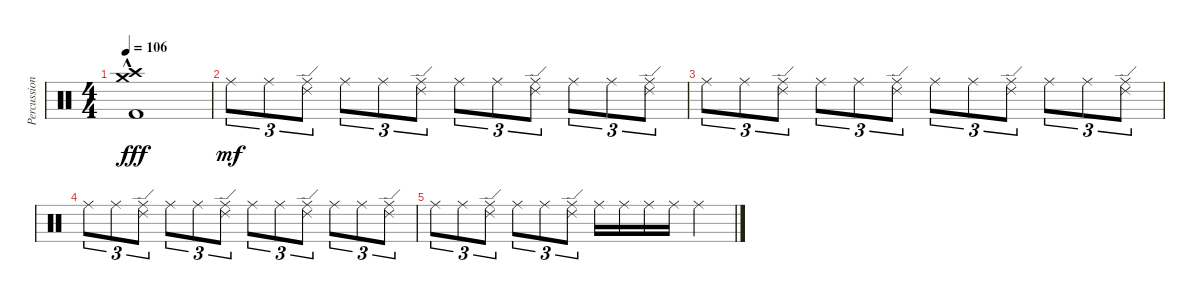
\track ("Percussion" "Percussion") {instrument percussion}
\staff {score}
\articulation defaults
\ts (4 4)
\tempo 106
\clef neutral
\ks c
("Crash medium (hit)" "Crash high (hit)" "Kick (hit) 2"{hac}).1{dy fff} |
"Ride (middle)".8{tu (3 2) dy mf} "Ride (middle)".8{tu (3 2)} ("Ride (edge) 2" "Ride (middle)").8{tu (3 2)} "Ride (middle)".8{tu (3 2)} "Ride (middle)".8{tu (3 2)} ("Ride (edge) 2" "Ride (middle)").8{tu (3 2)} "Ride (middle)".8{tu (3 2)} "Ride (middle)".8{tu (3 2)} ("Ride (edge) 2" "Ride (middle)").8{tu (3 2)} "Ride (middle)".8{tu (3 2)} "Ride (middle)".8{tu (3 2)} ("Ride (edge) 2" "Ride (middle)").8{tu (3 2)} |
"Ride (middle)".8{tu (3 2)} "Ride (middle)".8{tu (3 2)} ("Ride (edge) 2" "Ride (middle)").8{tu (3 2)} "Ride (middle)".8{tu (3 2)} "Ride (middle)".8{tu (3 2)} ("Ride (edge) 2" "Ride (middle)").8{tu (3 2)} "Ride (middle)".8{tu (3 2)} "Ride (middle)".8{tu (3 2)} ("Ride (edge) 2" "Ride (middle)").8{tu (3 2)} "Ride (middle)".8{tu (3 2)} "Ride (middle)".8{tu (3 2)} ("Ride (edge) 2" "Ride (middle)").8{tu (3 2)} |
"Ride (middle)".8{tu (3 2)} "Ride (middle)".8{tu (3 2)} ("Ride (edge) 2" "Ride (middle)").8{tu (3 2)} "Ride (middle)".8{tu (3 2)} "Ride (middle)".8{tu (3 2)} ("Ride (edge) 2" "Ride (middle)").8{tu (3 2)} "Ride (middle)".8{tu (3 2)} "Ride (middle)".8{tu (3 2)} ("Ride (edge) 2" "Ride (middle)").8{tu (3 2)} "Ride (middle)".8{tu (3 2)} "Ride (middle)".8{tu (3 2)} ("Ride (edge) 2" "Ride (middle)").8{tu (3 2)} |
"Ride (middle)".8{tu (3 2)} "Ride (middle)".8{tu (3 2)} ("Ride (edge) 2" "Ride (middle)").8{tu (3 2)} "Ride (middle)".8{tu (3 2)} "Ride (middle)".8{tu (3 2)} ("Ride (edge) 2" "Ride (middle)").8{tu (3 2)} "Ride (middle)".16 "Ride (middle)".16 "Ride (middle)".16 "Ride (middle)".16 "Ride (middle)".4
